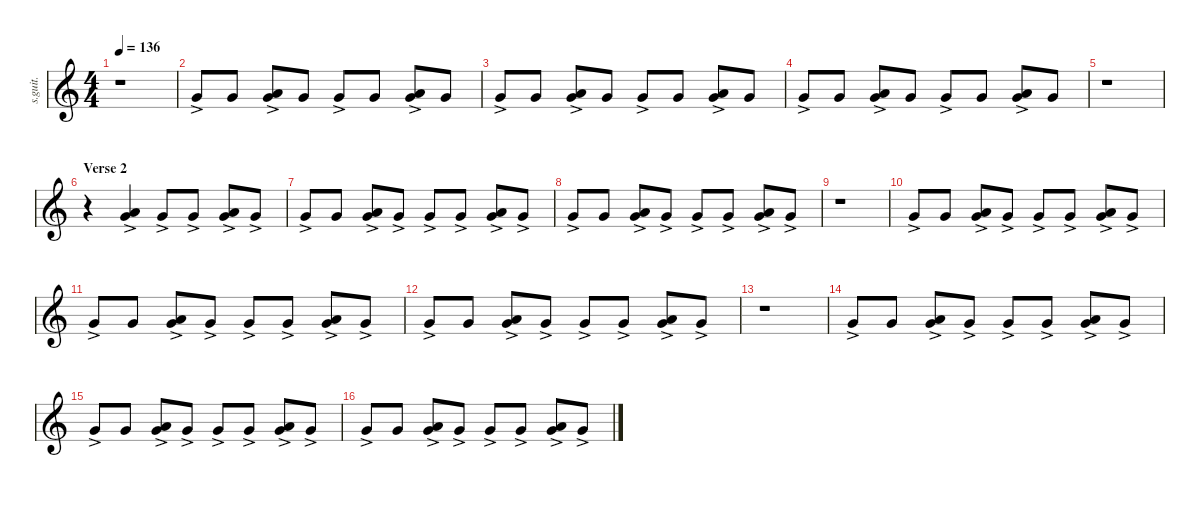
\defaultSystemsLayout 4
\hideDynamics
\bracketExtendMode nobrackets
\track ("Shawn Crahan " "s.guit.") {instrument percussion}
\staff {score}
\articulation defaults
\ts (4 4)
\tempo 136
\clef g2
\ks c
r.1{dy fff} |
"Very Low Tom (hit)"{ac}.8{lyrics (0 "") lyrics (1 "") lyrics (2 "") lyrics (3 "") lyrics (4 "")} "Very Low Tom (hit)".8{lyrics (0 "") lyrics (1 "") lyrics (2 "") lyrics (3 "") lyrics (4 "")} ("Very Low Tom (hit)"{ac} "Low Floor Tom (hit)").8{lyrics (0 "") lyrics (1 "") lyrics (2 "") lyrics (3 "") lyrics (4 "")} "Very Low Tom (hit)".8{lyrics (0 "") lyrics (1 "") lyrics (2 "") lyrics (3 "") lyrics (4 "")} "Very Low Tom (hit)"{ac}.8{lyrics (0 "") lyrics (1 "") lyrics (2 "") lyrics (3 "") lyrics (4 "")} "Very Low Tom (hit)".8{lyrics (0 "") lyrics (1 "") lyrics (2 "") lyrics (3 "") lyrics (4 "")} ("Very Low Tom (hit)"{ac} "Low Floor Tom (hit)").8{lyrics (0 "") lyrics (1 "") lyrics (2 "") lyrics (3 "") lyrics (4 "")} "Very Low Tom (hit)".8{lyrics (0 "") lyrics (1 "") lyrics (2 "") lyrics (3 "") lyrics (4 "")} |
"Very Low Tom (hit)"{ac}.8{lyrics (0 "") lyrics (1 "") lyrics (2 "") lyrics (3 "") lyrics (4 "")} "Very Low Tom (hit)".8{lyrics (0 "") lyrics (1 "") lyrics (2 "") lyrics (3 "") lyrics (4 "")} ("Very Low Tom (hit)"{ac} "Low Floor Tom (hit)").8{lyrics (0 "") lyrics (1 "") lyrics (2 "") lyrics (3 "") lyrics (4 "")} "Very Low Tom (hit)".8{lyrics (0 "") lyrics (1 "") lyrics (2 "") lyrics (3 "") lyrics (4 "")} "Very Low Tom (hit)"{ac}.8{lyrics (0 "") lyrics (1 "") lyrics (2 "") lyrics (3 "") lyrics (4 "")} "Very Low Tom (hit)".8{lyrics (0 "") lyrics (1 "") lyrics (2 "") lyrics (3 "") lyrics (4 "")} ("Very Low Tom (hit)"{ac} "Low Floor Tom (hit)").8{lyrics (0 "") lyrics (1 "") lyrics (2 "") lyrics (3 "") lyrics (4 "")} "Very Low Tom (hit)".8{lyrics (0 "") lyrics (1 "") lyrics (2 "") lyrics (3 "") lyrics (4 "")} |
"Very Low Tom (hit)"{ac}.8{lyrics (0 "") lyrics (1 "") lyrics (2 "") lyrics (3 "") lyrics (4 "")} "Very Low Tom (hit)".8{lyrics (0 "") lyrics (1 "") lyrics (2 "") lyrics (3 "") lyrics (4 "")} ("Very Low Tom (hit)"{ac} "Low Floor Tom (hit)").8{lyrics (0 "") lyrics (1 "") lyrics (2 "") lyrics (3 "") lyrics (4 "")} "Very Low Tom (hit)".8{lyrics (0 "") lyrics (1 "") lyrics (2 "") lyrics (3 "") lyrics (4 "")} "Very Low Tom (hit)"{ac}.8{lyrics (0 "") lyrics (1 "") lyrics (2 "") lyrics (3 "") lyrics (4 "")} "Very Low Tom (hit)".8{lyrics (0 "") lyrics (1 "") lyrics (2 "") lyrics (3 "") lyrics (4 "")} ("Very Low Tom (hit)"{ac} "Low Floor Tom (hit)").8{lyrics (0 "") lyrics (1 "") lyrics (2 "") lyrics (3 "") lyrics (4 "")} "Very Low Tom (hit)".8{lyrics (0 "") lyrics (1 "") lyrics (2 "") lyrics (3 "") lyrics (4 "")} |
r.1 |
\section ("" "Verse 2")
r.4 ("Very Low Tom (hit)"{ac} "Low Floor Tom (hit)").4{lyrics (0 "") lyrics (1 "") lyrics (2 "") lyrics (3 "") lyrics (4 "")} "Very Low Tom (hit)"{ac}.8{lyrics (0 "") lyrics (1 "") lyrics (2 "") lyrics (3 "") lyrics (4 "")} "Very Low Tom (hit)"{ac}.8{lyrics (0 "") lyrics (1 "") lyrics (2 "") lyrics (3 "") lyrics (4 "")} ("Very Low Tom (hit)"{ac} "Low Floor Tom (hit)").8{lyrics (0 "") lyrics (1 "") lyrics (2 "") lyrics (3 "") lyrics (4 "")} "Very Low Tom (hit)"{ac}.8{lyrics (0 "") lyrics (1 "") lyrics (2 "") lyrics (3 "") lyrics (4 "")} |
"Very Low Tom (hit)"{ac}.8{lyrics (0 "") lyrics (1 "") lyrics (2 "") lyrics (3 "") lyrics (4 "")} "Very Low Tom (hit)".8{lyrics (0 "") lyrics (1 "") lyrics (2 "") lyrics (3 "") lyrics (4 "")} ("Very Low Tom (hit)"{ac} "Low Floor Tom (hit)").8{lyrics (0 "") lyrics (1 "") lyrics (2 "") lyrics (3 "") lyrics (4 "")} "Very Low Tom (hit)"{ac}.8{lyrics (0 "") lyrics (1 "") lyrics (2 "") lyrics (3 "") lyrics (4 "")} "Very Low Tom (hit)"{ac}.8{lyrics (0 "") lyrics (1 "") lyrics (2 "") lyrics (3 "") lyrics (4 "")} "Very Low Tom (hit)"{ac}.8{lyrics (0 "") lyrics (1 "") lyrics (2 "") lyrics (3 "") lyrics (4 "")} ("Very Low Tom (hit)"{ac} "Low Floor Tom (hit)").8{lyrics (0 "") lyrics (1 "") lyrics (2 "") lyrics (3 "") lyrics (4 "")} "Very Low Tom (hit)"{ac}.8{lyrics (0 "") lyrics (1 "") lyrics (2 "") lyrics (3 "") lyrics (4 "")} |
"Very Low Tom (hit)"{ac}.8{lyrics (0 "") lyrics (1 "") lyrics (2 "") lyrics (3 "") lyrics (4 "")} "Very Low Tom (hit)".8{lyrics (0 "") lyrics (1 "") lyrics (2 "") lyrics (3 "") lyrics (4 "")} ("Very Low Tom (hit)"{ac} "Low Floor Tom (hit)").8{lyrics (0 "") lyrics (1 "") lyrics (2 "") lyrics (3 "") lyrics (4 "")} "Very Low Tom (hit)"{ac}.8{lyrics (0 "") lyrics (1 "") lyrics (2 "") lyrics (3 "") lyrics (4 "")} "Very Low Tom (hit)"{ac}.8{lyrics (0 "") lyrics (1 "") lyrics (2 "") lyrics (3 "") lyrics (4 "")} "Very Low Tom (hit)"{ac}.8{lyrics (0 "") lyrics (1 "") lyrics (2 "") lyrics (3 "") lyrics (4 "")} ("Very Low Tom (hit)"{ac} "Low Floor Tom (hit)").8{lyrics (0 "") lyrics (1 "") lyrics (2 "") lyrics (3 "") lyrics (4 "")} "Very Low Tom (hit)"{ac}.8{lyrics (0 "") lyrics (1 "") lyrics (2 "") lyrics (3 "") lyrics (4 "")} |
r.1 |
"Very Low Tom (hit)"{ac}.8{lyrics (0 "") lyrics (1 "") lyrics (2 "") lyrics (3 "") lyrics (4 "")} "Very Low Tom (hit)".8{lyrics (0 "") lyrics (1 "") lyrics (2 "") lyrics (3 "") lyrics (4 "")} ("Very Low Tom (hit)"{ac} "Low Floor Tom (hit)").8{lyrics (0 "") lyrics (1 "") lyrics (2 "") lyrics (3 "") lyrics (4 "")} "Very Low Tom (hit)"{ac}.8{lyrics (0 "") lyrics (1 "") lyrics (2 "") lyrics (3 "") lyrics (4 "")} "Very Low Tom (hit)"{ac}.8{lyrics (0 "") lyrics (1 "") lyrics (2 "") lyrics (3 "") lyrics (4 "")} "Very Low Tom (hit)"{ac}.8{lyrics (0 "") lyrics (1 "") lyrics (2 "") lyrics (3 "") lyrics (4 "")} ("Very Low Tom (hit)"{ac} "Low Floor Tom (hit)").8{lyrics (0 "") lyrics (1 "") lyrics (2 "") lyrics (3 "") lyrics (4 "")} "Very Low Tom (hit)"{ac}.8{lyrics (0 "") lyrics (1 "") lyrics (2 "") lyrics (3 "") lyrics (4 "")} |
"Very Low Tom (hit)"{ac}.8{lyrics (0 "") lyrics (1 "") lyrics (2 "") lyrics (3 "") lyrics (4 "")} "Very Low Tom (hit)".8{lyrics (0 "") lyrics (1 "") lyrics (2 "") lyrics (3 "") lyrics (4 "")} ("Very Low Tom (hit)"{ac} "Low Floor Tom (hit)").8{lyrics (0 "") lyrics (1 "") lyrics (2 "") lyrics (3 "") lyrics (4 "")} "Very Low Tom (hit)"{ac}.8{lyrics (0 "") lyrics (1 "") lyrics (2 "") lyrics (3 "") lyrics (4 "")} "Very Low Tom (hit)"{ac}.8{lyrics (0 "") lyrics (1 "") lyrics (2 "") lyrics (3 "") lyrics (4 "")} "Very Low Tom (hit)"{ac}.8{lyrics (0 "") lyrics (1 "") lyrics (2 "") lyrics (3 "") lyrics (4 "")} ("Very Low Tom (hit)"{ac} "Low Floor Tom (hit)").8{lyrics (0 "") lyrics (1 "") lyrics (2 "") lyrics (3 "") lyrics (4 "")} "Very Low Tom (hit)"{ac}.8{lyrics (0 "") lyrics (1 "") lyrics (2 "") lyrics (3 "") lyrics (4 "")} |
"Very Low Tom (hit)"{ac}.8{lyrics (0 "") lyrics (1 "") lyrics (2 "") lyrics (3 "") lyrics (4 "")} "Very Low Tom (hit)".8{lyrics (0 "") lyrics (1 "") lyrics (2 "") lyrics (3 "") lyrics (4 "")} ("Very Low Tom (hit)"{ac} "Low Floor Tom (hit)").8{lyrics (0 "") lyrics (1 "") lyrics (2 "") lyrics (3 "") lyrics (4 "")} "Very Low Tom (hit)"{ac}.8{lyrics (0 "") lyrics (1 "") lyrics (2 "") lyrics (3 "") lyrics (4 "")} "Very Low Tom (hit)"{ac}.8{lyrics (0 "") lyrics (1 "") lyrics (2 "") lyrics (3 "") lyrics (4 "")} "Very Low Tom (hit)"{ac}.8{lyrics (0 "") lyrics (1 "") lyrics (2 "") lyrics (3 "") lyrics (4 "")} ("Very Low Tom (hit)"{ac} "Low Floor Tom (hit)").8{lyrics (0 "") lyrics (1 "") lyrics (2 "") lyrics (3 "") lyrics (4 "")} "Very Low Tom (hit)"{ac}.8{lyrics (0 "") lyrics (1 "") lyrics (2 "") lyrics (3 "") lyrics (4 "")} |
r.1 |
"Very Low Tom (hit)"{ac}.8{lyrics (0 "") lyrics (1 "") lyrics (2 "") lyrics (3 "") lyrics (4 "")} "Very Low Tom (hit)".8{lyrics (0 "") lyrics (1 "") lyrics (2 "") lyrics (3 "") lyrics (4 "")} ("Very Low Tom (hit)"{ac} "Low Floor Tom (hit)").8{lyrics (0 "") lyrics (1 "") lyrics (2 "") lyrics (3 "") lyrics (4 "")} "Very Low Tom (hit)"{ac}.8{lyrics (0 "") lyrics (1 "") lyrics (2 "") lyrics (3 "") lyrics (4 "")} "Very Low Tom (hit)"{ac}.8{lyrics (0 "") lyrics (1 "") lyrics (2 "") lyrics (3 "") lyrics (4 "")} "Very Low Tom (hit)"{ac}.8{lyrics (0 "") lyrics (1 "") lyrics (2 "") lyrics (3 "") lyrics (4 "")} ("Very Low Tom (hit)"{ac} "Low Floor Tom (hit)").8{lyrics (0 "") lyrics (1 "") lyrics (2 "") lyrics (3 "") lyrics (4 "")} "Very Low Tom (hit)"{ac}.8{lyrics (0 "") lyrics (1 "") lyrics (2 "") lyrics (3 "") lyrics (4 "")} |
"Very Low Tom (hit)"{ac}.8{lyrics (0 "") lyrics (1 "") lyrics (2 "") lyrics (3 "") lyrics (4 "")} "Very Low Tom (hit)".8{lyrics (0 "") lyrics (1 "") lyrics (2 "") lyrics (3 "") lyrics (4 "")} ("Very Low Tom (hit)"{ac} "Low Floor Tom (hit)").8{lyrics (0 "") lyrics (1 "") lyrics (2 "") lyrics (3 "") lyrics (4 "")} "Very Low Tom (hit)"{ac}.8{lyrics (0 "") lyrics (1 "") lyrics (2 "") lyrics (3 "") lyrics (4 "")} "Very Low Tom (hit)"{ac}.8{lyrics (0 "") lyrics (1 "") lyrics (2 "") lyrics (3 "") lyrics (4 "")} "Very Low Tom (hit)"{ac}.8{lyrics (0 "") lyrics (1 "") lyrics (2 "") lyrics (3 "") lyrics (4 "")} ("Very Low Tom (hit)"{ac} "Low Floor Tom (hit)").8{lyrics (0 "") lyrics (1 "") lyrics (2 "") lyrics (3 "") lyrics (4 "")} "Very Low Tom (hit)"{ac}.8{lyrics (0 "") lyrics (1 "") lyrics (2 "") lyrics (3 "") lyrics (4 "")} |
"Very Low Tom (hit)"{ac}.8{lyrics (0 "") lyrics (1 "") lyrics (2 "") lyrics (3 "") lyrics (4 "")} "Very Low Tom (hit)".8{lyrics (0 "") lyrics (1 "") lyrics (2 "") lyrics (3 "") lyrics (4 "")} ("Very Low Tom (hit)"{ac} "Low Floor Tom (hit)").8{lyrics (0 "") lyrics (1 "") lyrics (2 "") lyrics (3 "") lyrics (4 "")} "Very Low Tom (hit)"{ac}.8{lyrics (0 "") lyrics (1 "") lyrics (2 "") lyrics (3 "") lyrics (4 "")} "Very Low Tom (hit)"{ac}.8{lyrics (0 "") lyrics (1 "") lyrics (2 "") lyrics (3 "") lyrics (4 "")} "Very Low Tom (hit)"{ac}.8{lyrics (0 "") lyrics (1 "") lyrics (2 "") lyrics (3 "") lyrics (4 "")} ("Very Low Tom (hit)"{ac} "Low Floor Tom (hit)").8{lyrics (0 "") lyrics (1 "") lyrics (2 "") lyrics (3 "") lyrics (4 "")} "Very Low Tom (hit)"{ac}.8{lyrics (0 "") lyrics (1 "") lyrics (2 "") lyrics (3 "") lyrics (4 "")}
